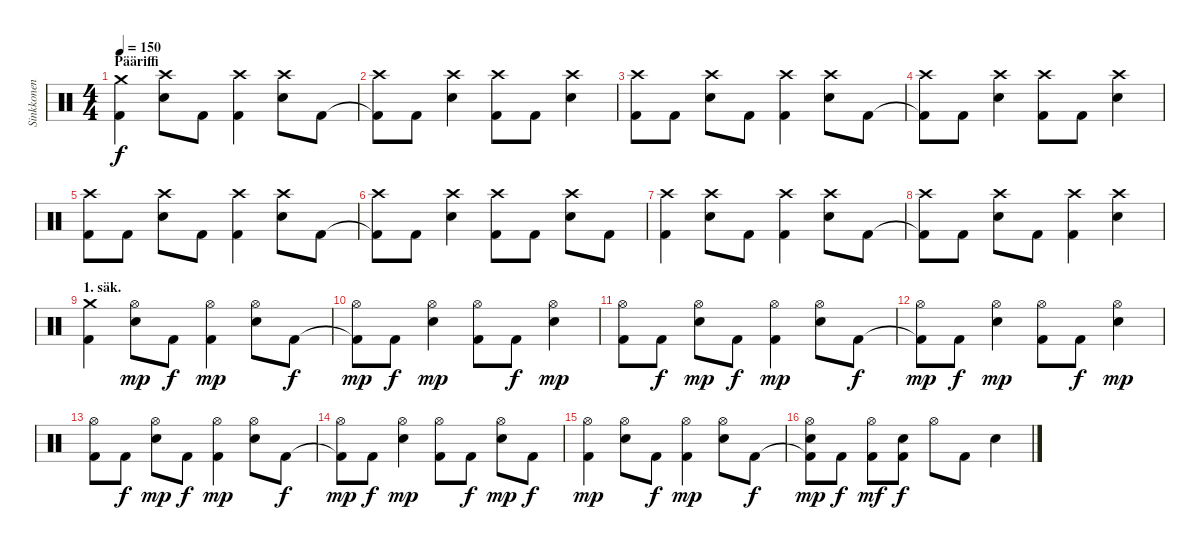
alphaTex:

\track ("Sinkkonen" "Sinkkonen") {instrument percussion}
\staff {score}
\articulation defaults
\ts (4 4)
\section ("" "Pääriffi")
\tempo 150
\clef neutral
\ks c
("Kick (hit) 2" "Crash medium (hit)").4{dy f} ("Crash high (hit)" "Snare (hit) 2").8 "Kick (hit) 2".8 ("Kick (hit) 2" "Crash high (hit)").4 ("Crash high (hit)" "Snare (hit) 2").8 "Kick (hit) 2".8 |
("Kick (hit) 2"{t} "Crash high (hit)").8 "Kick (hit) 2".8 ("Crash high (hit)" "Snare (hit) 2").4 ("Kick (hit) 2" "Crash high (hit)").8 "Kick (hit) 2".8 ("Crash high (hit)" "Snare (hit) 2").4 |
("Kick (hit) 2" "Crash high (hit)").8 "Kick (hit) 2".8 ("Crash high (hit)" "Snare (hit) 2").8 "Kick (hit) 2".8 ("Kick (hit) 2" "Crash high (hit)").4 ("Crash high (hit)" "Snare (hit) 2").8 "Kick (hit) 2".8 |
("Kick (hit) 2"{t} "Crash high (hit)").8 "Kick (hit) 2".8 ("Crash high (hit)" "Snare (hit) 2").4 ("Kick (hit) 2" "Crash high (hit)").8 "Kick (hit) 2".8 ("Crash high (hit)" "Snare (hit) 2").4 |
("Kick (hit) 2" "Crash high (hit)").8 "Kick (hit) 2".8 ("Crash high (hit)" "Snare (hit) 2").8 "Kick (hit) 2".8 ("Kick (hit) 2" "Crash high (hit)").4 ("Crash high (hit)" "Snare (hit) 2").8 "Kick (hit) 2".8 |
("Kick (hit) 2"{t} "Crash high (hit)").8 "Kick (hit) 2".8 ("Crash high (hit)" "Snare (hit) 2").4 ("Kick (hit) 2" "Crash high (hit)").8 "Kick (hit) 2".8 ("Crash high (hit)" "Snare (hit) 2").8 "Kick (hit) 2".8 |
("Kick (hit) 2" "Crash high (hit)").4 ("Crash high (hit)" "Snare (hit) 2").8 "Kick (hit) 2".8 ("Kick (hit) 2" "Crash high (hit)").4 ("Crash high (hit)" "Snare (hit) 2").8 "Kick (hit) 2".8 |
("Kick (hit) 2"{t} "Crash high (hit)").8 "Kick (hit) 2".8 ("Crash high (hit)" "Snare (hit) 2").8 "Kick (hit) 2".8 ("Kick (hit) 2" "Crash high (hit)").4 ("Crash high (hit)" "Snare (hit) 2").4 |
\section ("" "1. säk.")
("Kick (hit) 2" "Crash medium (hit)").4 ("Hi-Hat (open)" "Snare (hit) 2").8{dy mp} "Kick (hit) 2".8{dy f} ("Kick (hit) 2" "Hi-Hat (open)").4{dy mp} ("Hi-Hat (open)" "Snare (hit) 2").8 "Kick (hit) 2".8{dy f} |
("Kick (hit) 2"{t} "Hi-Hat (open)").8{dy mp} "Kick (hit) 2".8{dy f} ("Hi-Hat (open)" "Snare (hit) 2").4{dy mp} ("Kick (hit) 2" "Hi-Hat (open)").8 "Kick (hit) 2".8{dy f} ("Hi-Hat (open)" "Snare (hit) 2").4{dy mp} |
("Kick (hit) 2" "Hi-Hat (open)").8 "Kick (hit) 2".8{dy f} ("Hi-Hat (open)" "Snare (hit) 2").8{dy mp} "Kick (hit) 2".8{dy f} ("Kick (hit) 2" "Hi-Hat (open)").4{dy mp} ("Hi-Hat (open)" "Snare (hit) 2").8 "Kick (hit) 2".8{dy f} |
("Kick (hit) 2"{t} "Hi-Hat (open)").8{dy mp} "Kick (hit) 2".8{dy f} ("Hi-Hat (open)" "Snare (hit) 2").4{dy mp} ("Kick (hit) 2" "Hi-Hat (open)").8 "Kick (hit) 2".8{dy f} ("Hi-Hat (open)" "Snare (hit) 2").4{dy mp} |
("Kick (hit) 2" "Hi-Hat (open)").8 "Kick (hit) 2".8{dy f} ("Hi-Hat (open)" "Snare (hit) 2").8{dy mp} "Kick (hit) 2".8{dy f} ("Kick (hit) 2" "Hi-Hat (open)").4{dy mp} ("Hi-Hat (open)" "Snare (hit) 2").8 "Kick (hit) 2".8{dy f} |
("Kick (hit) 2"{t} "Hi-Hat (open)").8{dy mp} "Kick (hit) 2".8{dy f} ("Hi-Hat (open)" "Snare (hit) 2").4{dy mp} ("Kick (hit) 2" "Hi-Hat (open)").8 "Kick (hit) 2".8{dy f} ("Hi-Hat (open)" "Snare (hit) 2").8{dy mp} "Kick (hit) 2".8{dy f} |
("Kick (hit) 2" "Hi-Hat (open)").4{dy mp} ("Hi-Hat (open)" "Snare (hit) 2").8 "Kick (hit) 2".8{dy f} ("Kick (hit) 2" "Hi-Hat (open)").4{dy mp} ("Hi-Hat (open)" "Snare (hit) 2").8 "Kick (hit) 2".8{dy f} |
("Kick (hit) 2"{t} "Hi-Hat (open)" "Snare (hit) 2").8{dy mp} "Kick (hit) 2".8{dy f} ("Kick (hit) 2" "Hi-Hat (open)").8{dy mf} ("Kick (hit) 2" "Snare (hit) 2").8{dy f} "Hi-Hat (open)".8 "Kick (hit) 2".8 "Snare (hit) 2".4
